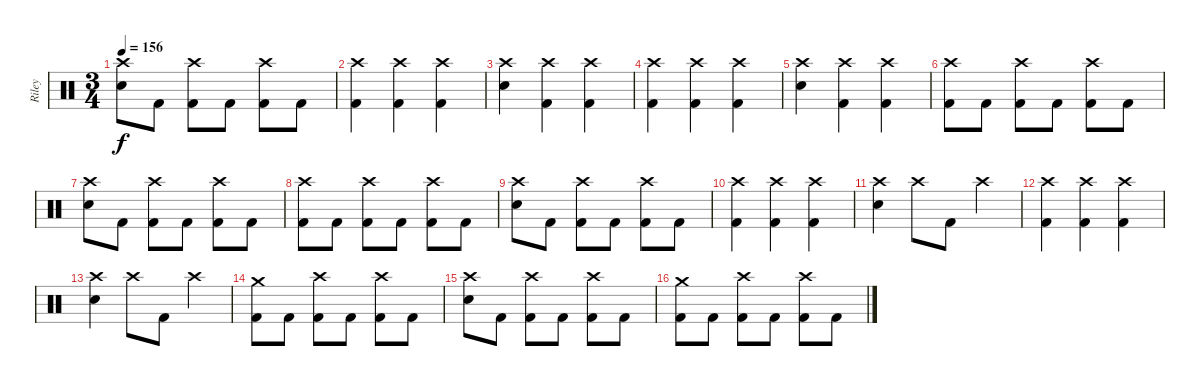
\track ("Riley" "Riley") {instrument percussion}
\staff {score}
\articulation defaults
\ts (3 4)
\tempo 156
\clef neutral
\ks c
("Crash high (hit)" "Electric Snare (hit)").8{dy f} "Kick (hit) 2".8 ("Crash high (hit)" "Kick (hit) 2").8 "Kick (hit) 2".8 ("Crash high (hit)" "Kick (hit) 2").8 "Kick (hit) 2".8 |
("Crash high (hit)" "Kick (hit) 2").4 ("Crash high (hit)" "Kick (hit) 2").4 ("Crash high (hit)" "Kick (hit) 2").4 |
("Crash high (hit)" "Electric Snare (hit)").4 ("Crash high (hit)" "Kick (hit) 2").4 ("Crash high (hit)" "Kick (hit) 2").4 |
("Crash high (hit)" "Kick (hit) 2").4 ("Crash high (hit)" "Kick (hit) 2").4 ("Crash high (hit)" "Kick (hit) 2").4 |
("Crash high (hit)" "Electric Snare (hit)").4 ("Crash high (hit)" "Kick (hit) 2").4 ("Crash high (hit)" "Kick (hit) 2").4 |
("Crash high (hit)" "Kick (hit) 2").8 "Kick (hit) 2".8 ("Crash high (hit)" "Kick (hit) 2").8 "Kick (hit) 2".8 ("Crash high (hit)" "Kick (hit) 2").8 "Kick (hit) 2".8 |
("Crash high (hit)" "Electric Snare (hit)").8 "Kick (hit) 2".8 ("Crash high (hit)" "Kick (hit) 2").8 "Kick (hit) 2".8 ("Crash high (hit)" "Kick (hit) 2").8 "Kick (hit) 2".8 |
("Crash high (hit)" "Kick (hit) 2").8 "Kick (hit) 2".8 ("Crash high (hit)" "Kick (hit) 2").8 "Kick (hit) 2".8 ("Crash high (hit)" "Kick (hit) 2").8 "Kick (hit) 2".8 |
("Crash high (hit)" "Electric Snare (hit)").8 "Kick (hit) 2".8 ("Crash high (hit)" "Kick (hit) 2").8 "Kick (hit) 2".8 ("Crash high (hit)" "Kick (hit) 2").8 "Kick (hit) 2".8 |
("Crash high (hit)" "Kick (hit) 2").4 ("Crash high (hit)" "Kick (hit) 2").4 ("Crash high (hit)" "Kick (hit) 2").4 |
("Crash high (hit)" "Electric Snare (hit)").4 "Crash high (hit)".8 "Kick (hit) 2".8 "Crash high (hit)".4 |
("Crash high (hit)" "Kick (hit) 2").4 ("Crash high (hit)" "Kick (hit) 2").4 ("Crash high (hit)" "Kick (hit) 2").4 |
("Crash high (hit)" "Electric Snare (hit)").4 "Crash high (hit)".8 "Kick (hit) 2".8 "Crash high (hit)".4 |
("Crash medium (hit)" "Kick (hit) 2").8 "Kick (hit) 2".8 ("Crash high (hit)" "Kick (hit) 2").8 "Kick (hit) 2".8 ("Crash high (hit)" "Kick (hit) 2").8 "Kick (hit) 2".8 |
("Crash high (hit)" "Electric Snare (hit)").8 "Kick (hit) 2".8 ("Crash high (hit)" "Kick (hit) 2").8 "Kick (hit) 2".8 ("Crash high (hit)" "Kick (hit) 2").8 "Kick (hit) 2".8 |
("Crash medium (hit)" "Kick (hit) 2").8 "Kick (hit) 2".8 ("Crash high (hit)" "Kick (hit) 2").8 "Kick (hit) 2".8 ("Crash high (hit)" "Kick (hit) 2").8 "Kick (hit) 2".8
